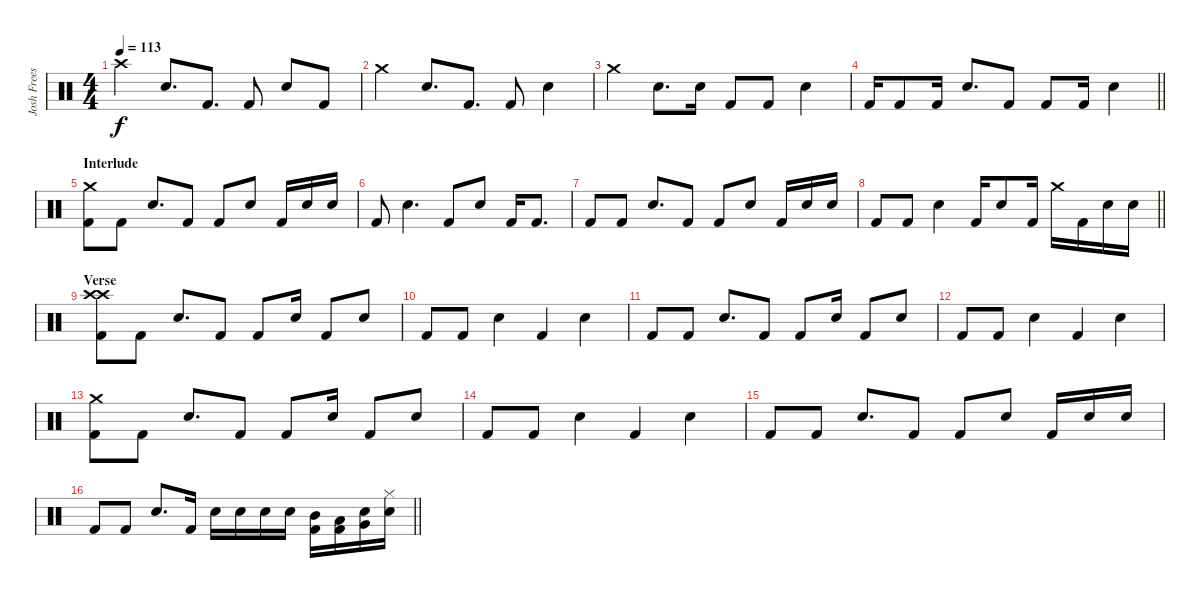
\track ("Josh Freese (Studio Drummer)" "Josh Frees") {instrument percussion}
\staff {score}
\articulation defaults
\ts (4 4)
\tempo 113
\clef neutral
\ks c "Crash high (hit)".4{dy f} "Electric Snare (hit)".8{d} "Kick (hit) 2".8{d} "Kick (hit) 2".8 "Electric Snare (hit)".8 "Kick (hit) 2".8
|
"Crash medium (hit)".4 "Electric Snare (hit)".8{d} "Kick (hit) 2".8{d} "Kick (hit) 2".8 "Electric Snare (hit)".4 |
"Crash medium (hit)".4 "Electric Snare (hit)".8{d} "Electric Snare (hit)".16 "Kick (hit) 2".8 "Kick (hit) 2".8 "Electric Snare (hit)".4 |
\barLineRight lightlight "Kick (hit) 2".16 "Kick (hit) 2".8 "Kick (hit) 2".16 "Electric Snare (hit)".8{d} "Kick (hit) 2".8 "Kick (hit) 2".8 "Kick (hit) 2".16 "Electric Snare (hit)".4
|
\section ("" "Interlude")
("Crash medium (hit)" "Kick (hit) 2").8{volume 12} "Kick (hit) 2".8 "Electric Snare (hit)".8{d} "Kick (hit) 2".8 "Kick (hit) 2".8 "Electric Snare (hit)".8 "Kick (hit) 2".16 "Electric Snare (hit)".16 "Electric Snare (hit)".16 |
"Kick (hit) 2".8 "Electric Snare (hit)".4{d} "Kick (hit) 2".8 "Electric Snare (hit)".8 "Kick (hit) 2".16 "Kick (hit) 2".8{d} |
"Kick (hit) 2".8 "Kick (hit) 2".8 "Electric Snare (hit)".8{d} "Kick (hit) 2".8 "Kick (hit) 2".8 "Electric Snare (hit)".8 "Kick (hit) 2".16 "Electric Snare (hit)".16 "Electric Snare (hit)".16 |
\barLineRight lightlight "Kick (hit) 2".8 "Kick (hit) 2".8 "Electric Snare (hit)".4 "Kick (hit) 2".16 "Electric Snare (hit)".8 "Kick (hit) 2".16 "Crash medium (hit)".16 "Kick (hit) 2".16 "Electric Snare (hit)".16 "Electric Snare (hit)".16
|
\section ("" "Verse")
("Crash high (hit)" "Crash high (hit)" "Kick (hit) 2").8 "Kick (hit) 2".8 "Electric Snare (hit)".8{d} "Kick (hit) 2".8 "Kick (hit) 2".8 "Electric Snare (hit)".16 "Kick (hit) 2".8 "Electric Snare (hit)".8 |
"Kick (hit) 2".8 "Kick (hit) 2".8 "Electric Snare (hit)".4 "Kick (hit) 2".4 "Electric Snare (hit)".4 |
"Kick (hit) 2".8 "Kick (hit) 2".8 "Electric Snare (hit)".8{d} "Kick (hit) 2".8 "Kick (hit) 2".8 "Electric Snare (hit)".16 "Kick (hit) 2".8 "Electric Snare (hit)".8 |
"Kick (hit) 2".8 "Kick (hit) 2".8 "Electric Snare (hit)".4 "Kick (hit) 2".4 "Electric Snare (hit)".4 |
("Crash medium (hit)" "Kick (hit) 2").8 "Kick (hit) 2".8 "Electric Snare (hit)".8{d} "Kick (hit) 2".8 "Kick (hit) 2".8 "Electric Snare (hit)".16 "Kick (hit) 2".8 "Electric Snare (hit)".8 |
"Kick (hit) 2".8 "Kick (hit) 2".8 "Electric Snare (hit)".4 "Kick (hit) 2".4 "Electric Snare (hit)".4 |
"Kick (hit) 2".8 "Kick (hit) 2".8 "Electric Snare (hit)".8{d} "Kick (hit) 2".8 "Kick (hit) 2".8 "Electric Snare (hit)".8 "Kick (hit) 2".16 "Electric Snare (hit)".16 "Electric Snare (hit)".16 |
\barLineRight lightlight "Kick (hit) 2".8 "Kick (hit) 2".8 "Electric Snare (hit)".8{d} "Kick (hit) 2".16 "Electric Snare (hit)".16 "Electric Snare (hit)".16 "Electric Snare (hit)".16 "Electric Snare (hit)".16
("Kick (hit) 2" "Mid Tom (hit)").16 ("Kick (hit) 2" "Low Tom (hit)").16 ("Electric Snare (hit)" "Very Low Tom (hit)").16 ("Electric Snare (hit)" "Hi-Hat (closed)").16
